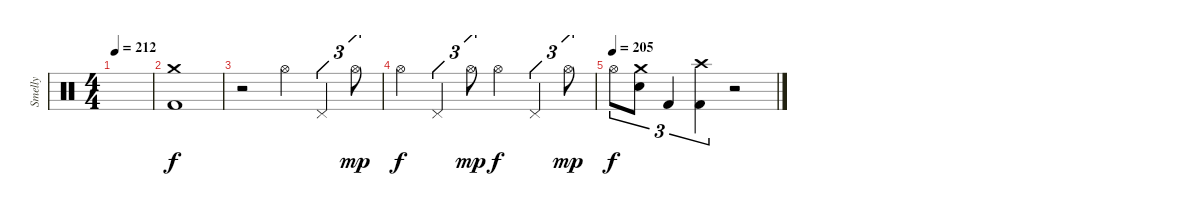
\track ("Smelly" "Smelly") {instrument percussion}
\staff {score}
\articulation defaults
\ts (4 4)
\tempo 212
\clef neutral
\ks c
|
("Crash medium (hit)" "Kick (hit) 2").1 |
r.2 "Hi-Hat (open)".4 "Pedal Hi-Hat (hit)".4{tu (3 2)} "Hi-Hat (open)".8{tu (3 2) dy mp} |
"Hi-Hat (open)".4{dy f} "Pedal Hi-Hat (hit)".4{tu (3 2)} "Hi-Hat (open)".8{tu (3 2) dy mp} "Hi-Hat (open)".4{dy f} "Pedal Hi-Hat (hit)".4{tu (3 2)} "Hi-Hat (open)".8{tu (3 2) dy mp} |
\tempo (205)
"Hi-Hat (open)".8{tu (3 2) dy f} ("Crash medium (hit)" "Electric Snare (hit)").8{tu (3 2)} "Kick (hit) 2".4{tu (3 2)} ("Crash high (hit)" "Kick (hit) 2").4{tu (3 2)} r.2
